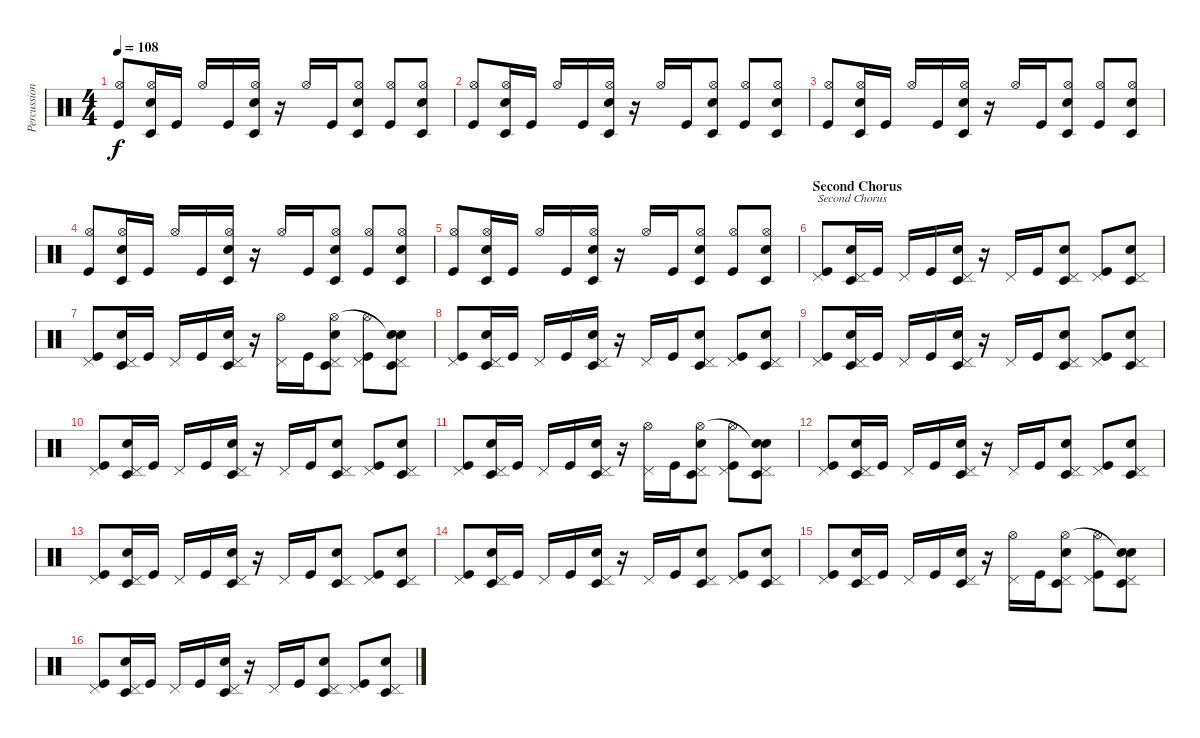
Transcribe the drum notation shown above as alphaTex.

\track ("Percussion" "Percussion") {instrument percussion}
\staff {score}
\articulation defaults
\ts (4 4)
\tempo 108
\clef neutral
\ks c
("Hi-Hat (open)" "Kick (hit)").8{dy f} ("Hi-Hat (open)" "Electric Snare (hit)" "Timbale low (hit)").16 "Kick (hit)".16 "Hi-Hat (open)".16 "Kick (hit)".16 ("Hi-Hat (open)" "Timbale low (hit)" "Electric Snare (hit)").16 r.16 "Hi-Hat (open)".16 "Kick (hit)".16 ("Hi-Hat (open)" "Electric Snare (hit)" "Timbale low (hit)").8 ("Hi-Hat (open)" "Kick (hit)").8 ("Hi-Hat (open)" "Electric Snare (hit)" "Timbale low (hit)").8 |
("Hi-Hat (open)" "Kick (hit)").8 ("Hi-Hat (open)" "Electric Snare (hit)" "Timbale low (hit)").16 "Kick (hit)".16 "Hi-Hat (open)".16 "Kick (hit)".16 ("Hi-Hat (open)" "Timbale low (hit)" "Electric Snare (hit)").16 r.16 "Hi-Hat (open)".16 "Kick (hit)".16 ("Hi-Hat (open)" "Electric Snare (hit)" "Timbale low (hit)").8 ("Hi-Hat (open)" "Kick (hit)").8 ("Hi-Hat (open)" "Electric Snare (hit)" "Timbale low (hit)").8 |
("Hi-Hat (open)" "Kick (hit)").8 ("Hi-Hat (open)" "Electric Snare (hit)" "Timbale low (hit)").16 "Kick (hit)".16 "Hi-Hat (open)".16 "Kick (hit)".16 ("Hi-Hat (open)" "Timbale low (hit)" "Electric Snare (hit)").16 r.16 "Hi-Hat (open)".16 "Kick (hit)".16 ("Hi-Hat (open)" "Electric Snare (hit)" "Timbale low (hit)").8 ("Hi-Hat (open)" "Kick (hit)").8 ("Hi-Hat (open)" "Electric Snare (hit)" "Timbale low (hit)").8 |
("Hi-Hat (open)" "Kick (hit)").8 ("Hi-Hat (open)" "Electric Snare (hit)" "Timbale low (hit)").16 "Kick (hit)".16 "Hi-Hat (open)".16 "Kick (hit)".16 ("Hi-Hat (open)" "Timbale low (hit)" "Electric Snare (hit)").16 r.16 "Hi-Hat (open)".16 "Kick (hit)".16 ("Hi-Hat (open)" "Electric Snare (hit)" "Timbale low (hit)").8 ("Hi-Hat (open)" "Kick (hit)").8 ("Hi-Hat (open)" "Electric Snare (hit)" "Timbale low (hit)").8 |
("Hi-Hat (open)" "Kick (hit)").8 ("Hi-Hat (open)" "Electric Snare (hit)" "Timbale low (hit)").16 "Kick (hit)".16 "Hi-Hat (open)".16 "Kick (hit)".16 ("Hi-Hat (open)" "Timbale low (hit)" "Electric Snare (hit)").16 r.16 "Hi-Hat (open)".16 "Kick (hit)".16 ("Hi-Hat (open)" "Electric Snare (hit)" "Timbale low (hit)").8 ("Hi-Hat (open)" "Kick (hit)").8 ("Hi-Hat (open)" "Electric Snare (hit)" "Timbale low (hit)").8 |
\section ("" "Second Chorus")
("Pedal Hi-Hat (hit)" "Kick (hit)").8{txt "Second Chorus"} ("Pedal Hi-Hat (hit)" "Electric Snare (hit)" "Timbale low (hit)").16 "Kick (hit)".16 "Pedal Hi-Hat (hit)".16 "Kick (hit)".16 ("Pedal Hi-Hat (hit)" "Timbale low (hit)" "Electric Snare (hit)").16 r.16 "Pedal Hi-Hat (hit)".16 "Kick (hit)".16 ("Pedal Hi-Hat (hit)" "Electric Snare (hit)" "Timbale low (hit)").8 ("Pedal Hi-Hat (hit)" "Kick (hit)").8 ("Pedal Hi-Hat (hit)" "Electric Snare (hit)" "Timbale low (hit)").8 |
("Pedal Hi-Hat (hit)" "Kick (hit)").8 ("Pedal Hi-Hat (hit)" "Electric Snare (hit)" "Timbale low (hit)").16 "Kick (hit)".16 "Pedal Hi-Hat (hit)".16 "Kick (hit)".16 ("Pedal Hi-Hat (hit)" "Timbale low (hit)" "Electric Snare (hit)").16 r.16 ("Pedal Hi-Hat (hit)" "Hi-Hat (open)").16 "Kick (hit)".16 ("Pedal Hi-Hat (hit)" "Electric Snare (hit)" "Timbale low (hit)" "Hi-Hat (open)").8 ("Pedal Hi-Hat (hit)" "Hi-Hat (open)" "Kick (hit)").8 ("Pedal Hi-Hat (hit)" "Electric Snare (hit)" "Timbale low (hit)" "Snare (hit)"{t}).8 |
("Pedal Hi-Hat (hit)" "Kick (hit)").8 ("Pedal Hi-Hat (hit)" "Electric Snare (hit)" "Timbale low (hit)").16 "Kick (hit)".16 "Pedal Hi-Hat (hit)".16 "Kick (hit)".16 ("Pedal Hi-Hat (hit)" "Timbale low (hit)" "Electric Snare (hit)").16 r.16 "Pedal Hi-Hat (hit)".16 "Kick (hit)".16 ("Pedal Hi-Hat (hit)" "Electric Snare (hit)" "Timbale low (hit)").8 ("Pedal Hi-Hat (hit)" "Kick (hit)").8 ("Pedal Hi-Hat (hit)" "Electric Snare (hit)" "Timbale low (hit)").8 |
("Pedal Hi-Hat (hit)" "Kick (hit)").8 ("Pedal Hi-Hat (hit)" "Electric Snare (hit)" "Timbale low (hit)").16 "Kick (hit)".16 "Pedal Hi-Hat (hit)".16 "Kick (hit)".16 ("Pedal Hi-Hat (hit)" "Timbale low (hit)" "Electric Snare (hit)").16 r.16 "Pedal Hi-Hat (hit)".16 "Kick (hit)".16 ("Pedal Hi-Hat (hit)" "Electric Snare (hit)" "Timbale low (hit)").8 ("Pedal Hi-Hat (hit)" "Kick (hit)").8 ("Pedal Hi-Hat (hit)" "Electric Snare (hit)" "Timbale low (hit)").8 |
("Pedal Hi-Hat (hit)" "Kick (hit)").8 ("Pedal Hi-Hat (hit)" "Electric Snare (hit)" "Timbale low (hit)").16 "Kick (hit)".16 "Pedal Hi-Hat (hit)".16 "Kick (hit)".16 ("Pedal Hi-Hat (hit)" "Timbale low (hit)" "Electric Snare (hit)").16 r.16 "Pedal Hi-Hat (hit)".16 "Kick (hit)".16 ("Pedal Hi-Hat (hit)" "Electric Snare (hit)" "Timbale low (hit)").8 ("Pedal Hi-Hat (hit)" "Kick (hit)").8 ("Pedal Hi-Hat (hit)" "Electric Snare (hit)" "Timbale low (hit)").8 |
("Pedal Hi-Hat (hit)" "Kick (hit)").8 ("Pedal Hi-Hat (hit)" "Electric Snare (hit)" "Timbale low (hit)").16 "Kick (hit)".16 "Pedal Hi-Hat (hit)".16 "Kick (hit)".16 ("Pedal Hi-Hat (hit)" "Timbale low (hit)" "Electric Snare (hit)").16 r.16 ("Pedal Hi-Hat (hit)" "Hi-Hat (open)").16 "Kick (hit)".16 ("Pedal Hi-Hat (hit)" "Electric Snare (hit)" "Timbale low (hit)" "Hi-Hat (open)").8 ("Pedal Hi-Hat (hit)" "Hi-Hat (open)" "Kick (hit)").8 ("Pedal Hi-Hat (hit)" "Electric Snare (hit)" "Timbale low (hit)" "Snare (hit)"{t}).8 |
("Pedal Hi-Hat (hit)" "Kick (hit)").8 ("Pedal Hi-Hat (hit)" "Electric Snare (hit)" "Timbale low (hit)").16 "Kick (hit)".16 "Pedal Hi-Hat (hit)".16 "Kick (hit)".16 ("Pedal Hi-Hat (hit)" "Timbale low (hit)" "Electric Snare (hit)").16 r.16 "Pedal Hi-Hat (hit)".16 "Kick (hit)".16 ("Pedal Hi-Hat (hit)" "Electric Snare (hit)" "Timbale low (hit)").8 ("Pedal Hi-Hat (hit)" "Kick (hit)").8 ("Pedal Hi-Hat (hit)" "Electric Snare (hit)" "Timbale low (hit)").8 |
("Pedal Hi-Hat (hit)" "Kick (hit)").8 ("Pedal Hi-Hat (hit)" "Electric Snare (hit)" "Timbale low (hit)").16 "Kick (hit)".16 "Pedal Hi-Hat (hit)".16 "Kick (hit)".16 ("Pedal Hi-Hat (hit)" "Timbale low (hit)" "Electric Snare (hit)").16 r.16 "Pedal Hi-Hat (hit)".16 "Kick (hit)".16 ("Pedal Hi-Hat (hit)" "Electric Snare (hit)" "Timbale low (hit)").8 ("Pedal Hi-Hat (hit)" "Kick (hit)").8 ("Pedal Hi-Hat (hit)" "Electric Snare (hit)" "Timbale low (hit)").8 |
("Pedal Hi-Hat (hit)" "Kick (hit)").8 ("Pedal Hi-Hat (hit)" "Electric Snare (hit)" "Timbale low (hit)").16 "Kick (hit)".16 "Pedal Hi-Hat (hit)".16 "Kick (hit)".16 ("Pedal Hi-Hat (hit)" "Timbale low (hit)" "Electric Snare (hit)").16 r.16 "Pedal Hi-Hat (hit)".16 "Kick (hit)".16 ("Pedal Hi-Hat (hit)" "Electric Snare (hit)" "Timbale low (hit)").8 ("Pedal Hi-Hat (hit)" "Kick (hit)").8 ("Pedal Hi-Hat (hit)" "Electric Snare (hit)" "Timbale low (hit)").8 |
("Pedal Hi-Hat (hit)" "Kick (hit)").8 ("Pedal Hi-Hat (hit)" "Electric Snare (hit)" "Timbale low (hit)").16 "Kick (hit)".16 "Pedal Hi-Hat (hit)".16 "Kick (hit)".16 ("Pedal Hi-Hat (hit)" "Timbale low (hit)" "Electric Snare (hit)").16 r.16 ("Pedal Hi-Hat (hit)" "Hi-Hat (open)").16 "Kick (hit)".16 ("Pedal Hi-Hat (hit)" "Electric Snare (hit)" "Timbale low (hit)" "Hi-Hat (open)").8 ("Pedal Hi-Hat (hit)" "Hi-Hat (open)" "Kick (hit)").8 ("Pedal Hi-Hat (hit)" "Electric Snare (hit)" "Timbale low (hit)" "Snare (hit)"{t}).8 |
("Pedal Hi-Hat (hit)" "Kick (hit)").8 ("Pedal Hi-Hat (hit)" "Electric Snare (hit)" "Timbale low (hit)").16 "Kick (hit)".16 "Pedal Hi-Hat (hit)".16 "Kick (hit)".16 ("Pedal Hi-Hat (hit)" "Timbale low (hit)" "Electric Snare (hit)").16 r.16 "Pedal Hi-Hat (hit)".16 "Kick (hit)".16 ("Pedal Hi-Hat (hit)" "Electric Snare (hit)" "Timbale low (hit)").8 ("Pedal Hi-Hat (hit)" "Kick (hit)").8 ("Pedal Hi-Hat (hit)" "Electric Snare (hit)" "Timbale low (hit)").8
